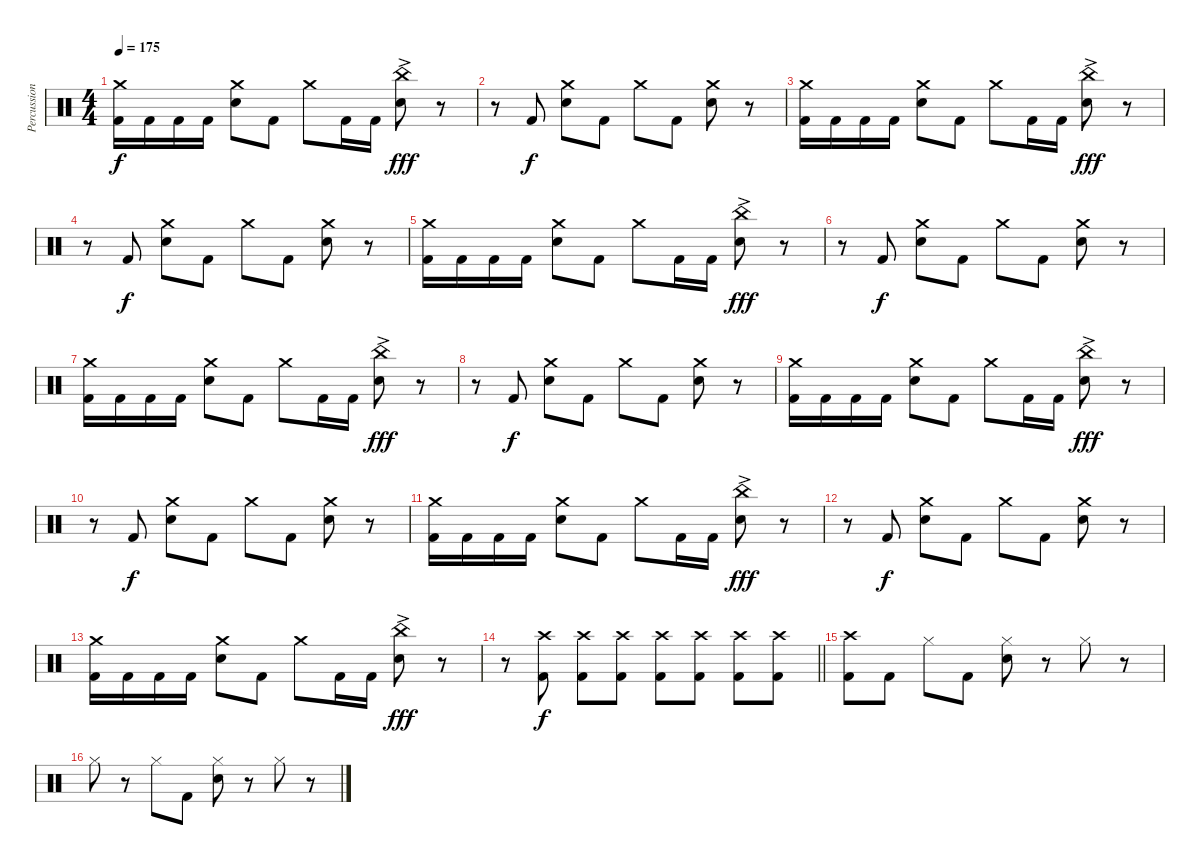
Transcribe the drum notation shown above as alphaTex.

\track ("Percussion (Moose)" "Percussion") {instrument percussion}
\staff {score}
\articulation defaults
\ts (4 4)
\tempo 175
\clef neutral
\ks c
("Crash medium (hit)" "Kick (hit) 2").16{dy f} "Kick (hit) 2".16 "Kick (hit) 2".16 "Kick (hit) 2".16 ("Crash medium (hit)" "Electric Snare (hit)").8 "Kick (hit) 2".8 "Crash medium (hit)".8 "Kick (hit) 2".16 "Kick (hit) 2".16 ("China (hit)"{ac} "Electric Snare (hit)").8{dy fff} r.8 |
r.8 "Kick (hit) 2".8{dy f} ("Crash medium (hit)" "Electric Snare (hit)").8 "Kick (hit) 2".8 "Crash medium (hit)".8 "Kick (hit) 2".8 ("Crash medium (hit)" "Electric Snare (hit)").8 r.8 |
("Crash medium (hit)" "Kick (hit) 2").16 "Kick (hit) 2".16 "Kick (hit) 2".16 "Kick (hit) 2".16 ("Crash medium (hit)" "Electric Snare (hit)").8 "Kick (hit) 2".8 "Crash medium (hit)".8 "Kick (hit) 2".16 "Kick (hit) 2".16 ("China (hit)"{ac} "Electric Snare (hit)").8{dy fff} r.8 |
r.8 "Kick (hit) 2".8{dy f} ("Crash medium (hit)" "Electric Snare (hit)").8 "Kick (hit) 2".8 "Crash medium (hit)".8 "Kick (hit) 2".8 ("Crash medium (hit)" "Electric Snare (hit)").8 r.8 |
("Crash medium (hit)" "Kick (hit) 2").16 "Kick (hit) 2".16 "Kick (hit) 2".16 "Kick (hit) 2".16 ("Crash medium (hit)" "Electric Snare (hit)").8 "Kick (hit) 2".8 "Crash medium (hit)".8 "Kick (hit) 2".16 "Kick (hit) 2".16 ("China (hit)"{ac} "Electric Snare (hit)").8{dy fff} r.8 |
r.8 "Kick (hit) 2".8{dy f} ("Crash medium (hit)" "Electric Snare (hit)").8 "Kick (hit) 2".8 "Crash medium (hit)".8 "Kick (hit) 2".8 ("Crash medium (hit)" "Electric Snare (hit)").8 r.8 |
("Crash medium (hit)" "Kick (hit) 2").16 "Kick (hit) 2".16 "Kick (hit) 2".16 "Kick (hit) 2".16 ("Crash medium (hit)" "Electric Snare (hit)").8 "Kick (hit) 2".8 "Crash medium (hit)".8 "Kick (hit) 2".16 "Kick (hit) 2".16 ("China (hit)"{ac} "Electric Snare (hit)").8{dy fff} r.8 |
r.8 "Kick (hit) 2".8{dy f} ("Crash medium (hit)" "Electric Snare (hit)").8 "Kick (hit) 2".8 "Crash medium (hit)".8 "Kick (hit) 2".8 ("Crash medium (hit)" "Electric Snare (hit)").8 r.8 |
("Crash medium (hit)" "Kick (hit) 2").16 "Kick (hit) 2".16 "Kick (hit) 2".16 "Kick (hit) 2".16 ("Crash medium (hit)" "Electric Snare (hit)").8 "Kick (hit) 2".8 "Crash medium (hit)".8 "Kick (hit) 2".16 "Kick (hit) 2".16 ("China (hit)"{ac} "Electric Snare (hit)").8{dy fff} r.8 |
r.8 "Kick (hit) 2".8{dy f} ("Crash medium (hit)" "Electric Snare (hit)").8 "Kick (hit) 2".8 "Crash medium (hit)".8 "Kick (hit) 2".8 ("Crash medium (hit)" "Electric Snare (hit)").8 r.8 |
("Crash medium (hit)" "Kick (hit) 2").16 "Kick (hit) 2".16 "Kick (hit) 2".16 "Kick (hit) 2".16 ("Crash medium (hit)" "Electric Snare (hit)").8 "Kick (hit) 2".8 "Crash medium (hit)".8 "Kick (hit) 2".16 "Kick (hit) 2".16 ("China (hit)"{ac} "Electric Snare (hit)").8{dy fff} r.8 |
r.8 "Kick (hit) 2".8{dy f} ("Crash medium (hit)" "Electric Snare (hit)").8 "Kick (hit) 2".8 "Crash medium (hit)".8 "Kick (hit) 2".8 ("Crash medium (hit)" "Electric Snare (hit)").8 r.8 |
("Crash medium (hit)" "Kick (hit) 2").16 "Kick (hit) 2".16 "Kick (hit) 2".16 "Kick (hit) 2".16 ("Crash medium (hit)" "Electric Snare (hit)").8 "Kick (hit) 2".8 "Crash medium (hit)".8 "Kick (hit) 2".16 "Kick (hit) 2".16 ("China (hit)"{ac} "Electric Snare (hit)").8{dy fff} r.8 |
\barLineRight lightlight
r.8 ("Crash high (hit)" "Kick (hit) 2").8{dy f} ("Crash high (hit)" "Kick (hit) 2").8 ("Crash high (hit)" "Kick (hit) 2").8 ("Crash high (hit)" "Kick (hit) 2").8 ("Crash high (hit)" "Kick (hit) 2").8 ("Crash high (hit)" "Kick (hit) 2").8 ("Crash high (hit)" "Kick (hit) 2").8 |
("Crash high (hit)" "Kick (hit) 2").8 "Kick (hit) 2".8 "Hi-Hat (closed)".8 "Kick (hit) 2".8 ("Hi-Hat (closed)" "Electric Snare (hit)").8 r.8 "Hi-Hat (closed)".8 r.8 |
"Hi-Hat (closed)".8 r.8 "Hi-Hat (closed)".8 "Kick (hit) 2".8 ("Hi-Hat (closed)" "Electric Snare (hit)").8 r.8 "Hi-Hat (closed)".8 r.8
